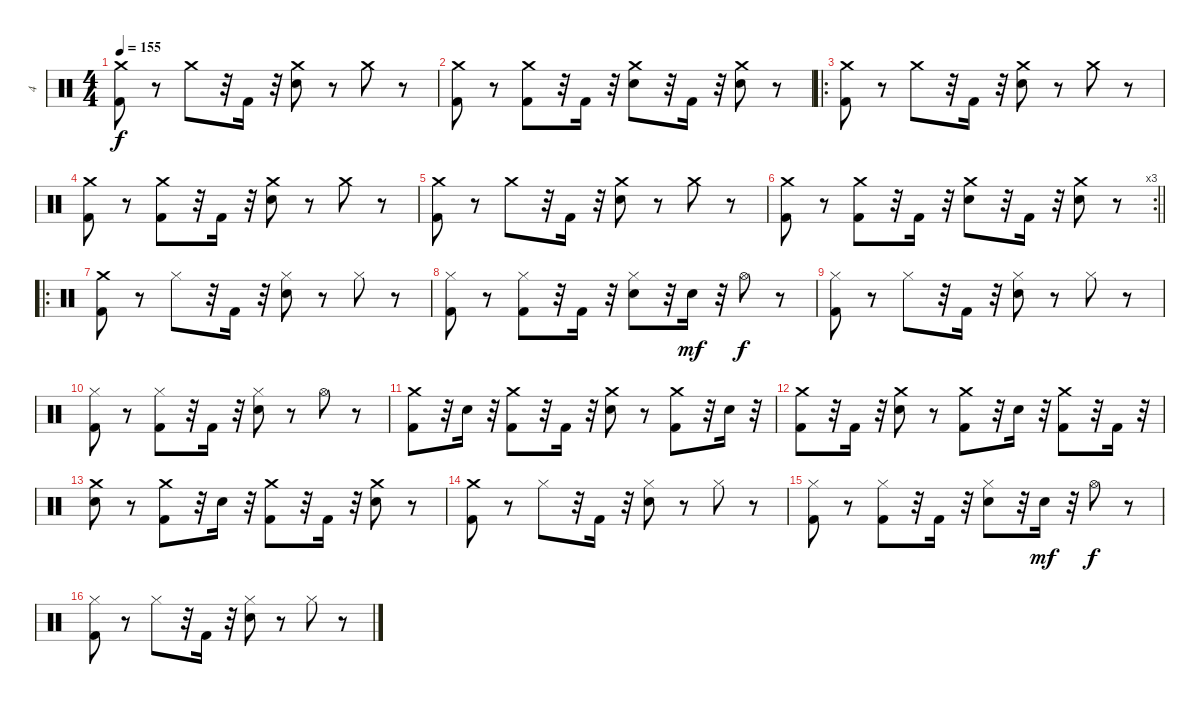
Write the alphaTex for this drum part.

\track ("4" "4") {instrument percussion}
\staff {score}
\articulation defaults
\ts (4 4)
\tempo 155
\clef neutral
\ks c
("Crash medium (hit)" "Kick (hit) 2").8{dy f} r.8 "Crash medium (hit)".8 r.32 "Kick (hit) 2".16 r.32 ("Crash medium (hit)" "Electric Snare (hit)").8 r.8 "Crash medium (hit)".8 r.8 |
("Crash medium (hit)" "Kick (hit) 2").8 r.8 ("Crash medium (hit)" "Kick (hit) 2").8 r.32 "Kick (hit) 2".16 r.32 ("Crash medium (hit)" "Electric Snare (hit)").8 r.32 "Kick (hit) 2".16 r.32 ("Crash medium (hit)" "Electric Snare (hit)").8 r.8 |
\ro
("Crash medium (hit)" "Kick (hit) 2").8 r.8 "Crash medium (hit)".8 r.32 "Kick (hit) 2".16 r.32 ("Crash medium (hit)" "Electric Snare (hit)").8 r.8 "Crash medium (hit)".8 r.8 |
("Crash medium (hit)" "Kick (hit) 2").8 r.8 ("Crash medium (hit)" "Kick (hit) 2").8 r.32 "Kick (hit) 2".16 r.32 ("Crash medium (hit)" "Electric Snare (hit)").8 r.8 "Crash medium (hit)".8 r.8 |
("Crash medium (hit)" "Kick (hit) 2").8 r.8 "Crash medium (hit)".8 r.32 "Kick (hit) 2".16 r.32 ("Crash medium (hit)" "Electric Snare (hit)").8 r.8 "Crash medium (hit)".8 r.8 |
\rc 3
\barLineRight lightlight
("Crash medium (hit)" "Kick (hit) 2").8 r.8 ("Crash medium (hit)" "Kick (hit) 2").8 r.32 "Kick (hit) 2".16 r.32 ("Crash medium (hit)" "Electric Snare (hit)").8 r.32 "Kick (hit) 2".16 r.32 ("Crash medium (hit)" "Electric Snare (hit)").8 r.8 |
\ro
\section ("" "")
("Crash medium (hit)" "Kick (hit) 2").8 r.8 "Hi-Hat (closed)".8 r.32 "Kick (hit) 2".16 r.32 ("Hi-Hat (closed)" "Electric Snare (hit)").8 r.8 "Hi-Hat (closed)".8 r.8 |
("Hi-Hat (closed)" "Kick (hit) 2").8 r.8 ("Hi-Hat (closed)" "Kick (hit) 2").8 r.32 "Kick (hit) 2".16 r.32 ("Hi-Hat (closed)" "Electric Snare (hit)").8 r.32 "Electric Snare (hit)".16{dy mf} r.32 "Hi-Hat (open)".8{dy f} r.8 |
("Hi-Hat (closed)" "Kick (hit) 2").8 r.8 "Hi-Hat (closed)".8 r.32 "Kick (hit) 2".16 r.32 ("Hi-Hat (closed)" "Electric Snare (hit)").8 r.8 "Hi-Hat (closed)".8 r.8 |
("Hi-Hat (closed)" "Kick (hit) 2").8 r.8 ("Hi-Hat (closed)" "Kick (hit) 2").8 r.32 "Kick (hit) 2".16 r.32 ("Hi-Hat (closed)" "Electric Snare (hit)").8 r.8 "Hi-Hat (open)".8 r.8 |
("Crash medium (hit)" "Kick (hit) 2").8 r.32 "Electric Snare (hit)".16 r.32 ("Crash medium (hit)" "Kick (hit) 2").8 r.32 "Kick (hit) 2".16 r.32 ("Crash medium (hit)" "Electric Snare (hit)").8 r.8 ("Crash medium (hit)" "Kick (hit) 2").8 r.32 "Electric Snare (hit)".16 r.32 |
("Crash medium (hit)" "Kick (hit) 2").8 r.32 "Kick (hit) 2".16 r.32 ("Crash medium (hit)" "Electric Snare (hit)").8 r.8 ("Crash medium (hit)" "Kick (hit) 2").8 r.32 "Electric Snare (hit)".16 r.32 ("Crash medium (hit)" "Kick (hit) 2").8 r.32 "Kick (hit) 2".16 r.32 |
("Crash medium (hit)" "Electric Snare (hit)").8 r.8 ("Crash medium (hit)" "Kick (hit) 2").8 r.32 "Electric Snare (hit)".16 r.32 ("Crash medium (hit)" "Kick (hit) 2").8 r.32 "Kick (hit) 2".16 r.32 ("Crash medium (hit)" "Electric Snare (hit)").8 r.8 |
("Crash medium (hit)" "Kick (hit) 2").8 r.8 "Hi-Hat (closed)".8 r.32 "Kick (hit) 2".16 r.32 ("Hi-Hat (closed)" "Electric Snare (hit)").8 r.8 "Hi-Hat (closed)".8 r.8 |
("Hi-Hat (closed)" "Kick (hit) 2").8 r.8 ("Hi-Hat (closed)" "Kick (hit) 2").8 r.32 "Kick (hit) 2".16 r.32 ("Hi-Hat (closed)" "Electric Snare (hit)").8 r.32 "Electric Snare (hit)".16{dy mf} r.32 "Hi-Hat (open)".8{dy f} r.8 |
("Hi-Hat (closed)" "Kick (hit) 2").8 r.8 "Hi-Hat (closed)".8 r.32 "Kick (hit) 2".16 r.32 ("Hi-Hat (closed)" "Electric Snare (hit)").8 r.8 "Hi-Hat (closed)".8 r.8
